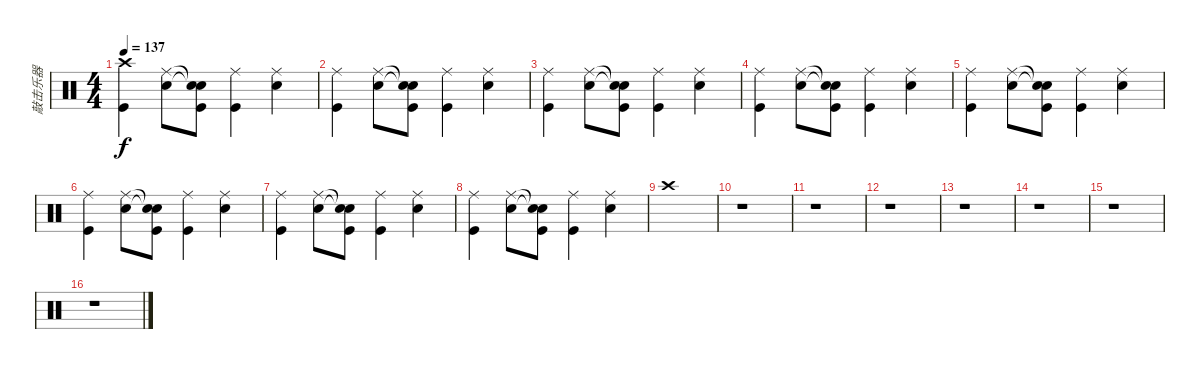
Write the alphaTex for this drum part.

\track ("敲击乐器" "敲击乐器") {instrument percussion}
\staff {score}
\articulation defaults
\ts (4 4)
\tempo 137
\clef neutral
\ks c
("Crash high (hit)" "Kick (hit)").4{dy f} ("Ride (middle)" "Snare (hit) 2").8 ("Snare (hit)"{t} "Snare (hit)"{t} "Kick (hit)").8 ("Ride (middle)" "Kick (hit)").4 ("Ride (middle)" "Snare (hit) 2").4 |
("Ride (middle)" "Kick (hit)").4 ("Ride (middle)" "Snare (hit) 2").8 ("Snare (hit)"{t} "Snare (hit)"{t} "Kick (hit)").8 ("Ride (middle)" "Kick (hit)").4 ("Ride (middle)" "Snare (hit) 2").4 |
("Ride (middle)" "Kick (hit)").4 ("Ride (middle)" "Snare (hit) 2").8 ("Snare (hit)"{t} "Snare (hit)"{t} "Kick (hit)").8 ("Ride (middle)" "Kick (hit)").4 ("Ride (middle)" "Snare (hit) 2").4 |
("Ride (middle)" "Kick (hit)").4 ("Ride (middle)" "Snare (hit) 2").8 ("Snare (hit)"{t} "Snare (hit)"{t} "Kick (hit)").8 ("Ride (middle)" "Kick (hit)").4 ("Ride (middle)" "Snare (hit) 2").4 |
("Ride (middle)" "Kick (hit)").4 ("Ride (middle)" "Snare (hit) 2").8 ("Snare (hit)"{t} "Snare (hit)"{t} "Kick (hit)").8 ("Ride (middle)" "Kick (hit)").4 ("Ride (middle)" "Snare (hit) 2").4 |
("Ride (middle)" "Kick (hit)").4 ("Ride (middle)" "Snare (hit) 2").8 ("Snare (hit)"{t} "Snare (hit)"{t} "Kick (hit)").8 ("Ride (middle)" "Kick (hit)").4 ("Ride (middle)" "Snare (hit) 2").4 |
("Ride (middle)" "Kick (hit)").4 ("Ride (middle)" "Snare (hit) 2").8 ("Snare (hit)"{t} "Snare (hit)"{t} "Kick (hit)").8 ("Ride (middle)" "Kick (hit)").4 ("Ride (middle)" "Snare (hit) 2").4 |
("Ride (middle)" "Kick (hit)").4 ("Ride (middle)" "Snare (hit) 2").8 ("Snare (hit)"{t} "Snare (hit)"{t} "Kick (hit)").8 ("Ride (middle)" "Kick (hit)").4 ("Ride (middle)" "Snare (hit) 2").4 |
"Crash high (hit)".1 |
r.1 |
r.1 |
r.1 |
r.1 |
r.1 |
r.1 |
r.1
